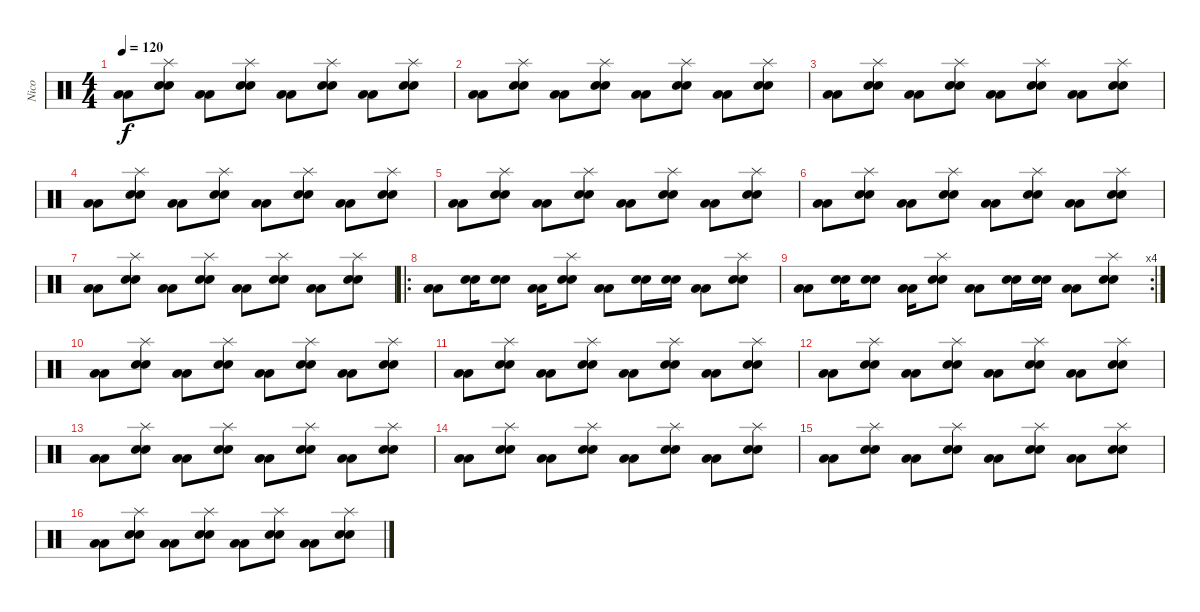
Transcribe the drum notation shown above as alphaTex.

\track ("Nico" "Nico") {instrument percussion}
\staff {score}
\articulation defaults
\ts (4 4)
\tempo 120
\clef neutral
\ks c
("Low Floor Tom (hit)" "Low Floor Tom (hit)").8{dy f} ("Splash (hit)" "Snare (hit) 2" "Snare (hit) 2").8 ("Low Floor Tom (hit)" "Low Floor Tom (hit)").8 ("Splash (hit)" "Snare (hit) 2" "Snare (hit) 2").8 ("Low Floor Tom (hit)" "Low Floor Tom (hit)").8 ("Splash (hit)" "Snare (hit) 2" "Snare (hit) 2").8 ("Low Floor Tom (hit)" "Low Floor Tom (hit)").8 ("Splash (hit)" "Snare (hit) 2" "Snare (hit) 2").8 |
("Low Floor Tom (hit)" "Low Floor Tom (hit)").8 ("Splash (hit)" "Snare (hit) 2" "Snare (hit) 2").8 ("Low Floor Tom (hit)" "Low Floor Tom (hit)").8 ("Splash (hit)" "Snare (hit) 2" "Snare (hit) 2").8 ("Low Floor Tom (hit)" "Low Floor Tom (hit)").8 ("Splash (hit)" "Snare (hit) 2" "Snare (hit) 2").8 ("Low Floor Tom (hit)" "Low Floor Tom (hit)").8 ("Splash (hit)" "Snare (hit) 2" "Snare (hit) 2").8 |
("Low Floor Tom (hit)" "Low Floor Tom (hit)").8 ("Splash (hit)" "Snare (hit) 2" "Snare (hit) 2").8 ("Low Floor Tom (hit)" "Low Floor Tom (hit)").8 ("Splash (hit)" "Snare (hit) 2" "Snare (hit) 2").8 ("Low Floor Tom (hit)" "Low Floor Tom (hit)").8 ("Splash (hit)" "Snare (hit) 2" "Snare (hit) 2").8 ("Low Floor Tom (hit)" "Low Floor Tom (hit)").8 ("Splash (hit)" "Snare (hit) 2" "Snare (hit) 2").8 |
("Low Floor Tom (hit)" "Low Floor Tom (hit)").8 ("Splash (hit)" "Snare (hit) 2" "Snare (hit) 2").8 ("Low Floor Tom (hit)" "Low Floor Tom (hit)").8 ("Splash (hit)" "Snare (hit) 2" "Snare (hit) 2").8 ("Low Floor Tom (hit)" "Low Floor Tom (hit)").8 ("Splash (hit)" "Snare (hit) 2" "Snare (hit) 2").8 ("Low Floor Tom (hit)" "Low Floor Tom (hit)").8 ("Splash (hit)" "Snare (hit) 2" "Snare (hit) 2").8 |
("Low Floor Tom (hit)" "Low Floor Tom (hit)").8 ("Splash (hit)" "Snare (hit) 2" "Snare (hit) 2").8 ("Low Floor Tom (hit)" "Low Floor Tom (hit)").8 ("Splash (hit)" "Snare (hit) 2" "Snare (hit) 2").8 ("Low Floor Tom (hit)" "Low Floor Tom (hit)").8 ("Splash (hit)" "Snare (hit) 2" "Snare (hit) 2").8 ("Low Floor Tom (hit)" "Low Floor Tom (hit)").8 ("Splash (hit)" "Snare (hit) 2" "Snare (hit) 2").8 |
("Low Floor Tom (hit)" "Low Floor Tom (hit)").8 ("Splash (hit)" "Snare (hit) 2" "Snare (hit) 2").8 ("Low Floor Tom (hit)" "Low Floor Tom (hit)").8 ("Splash (hit)" "Snare (hit) 2" "Snare (hit) 2").8 ("Low Floor Tom (hit)" "Low Floor Tom (hit)").8 ("Splash (hit)" "Snare (hit) 2" "Snare (hit) 2").8 ("Low Floor Tom (hit)" "Low Floor Tom (hit)").8 ("Splash (hit)" "Snare (hit) 2" "Snare (hit) 2").8 |
("Low Floor Tom (hit)" "Low Floor Tom (hit)").8 ("Splash (hit)" "Snare (hit) 2" "Snare (hit) 2").8 ("Low Floor Tom (hit)" "Low Floor Tom (hit)").8 ("Splash (hit)" "Snare (hit) 2" "Snare (hit) 2").8 ("Low Floor Tom (hit)" "Low Floor Tom (hit)").8 ("Splash (hit)" "Snare (hit) 2" "Snare (hit) 2").8 ("Low Floor Tom (hit)" "Low Floor Tom (hit)").8 ("Splash (hit)" "Snare (hit) 2" "Snare (hit) 2").8 |
\ro
("Low Floor Tom (hit)" "Low Floor Tom (hit)").8 ("Snare (hit) 2" "Snare (hit) 2").16 ("Snare (hit) 2" "Snare (hit) 2").8 ("Low Floor Tom (hit)" "Low Floor Tom (hit)").16 ("Splash (hit)" "Snare (hit) 2" "Snare (hit) 2").8 ("Low Floor Tom (hit)" "Low Floor Tom (hit)").8 ("Snare (hit) 2" "Snare (hit) 2").16 ("Snare (hit) 2" "Snare (hit) 2").16 ("Low Floor Tom (hit)" "Low Floor Tom (hit)").8 ("Splash (hit)" "Snare (hit) 2" "Snare (hit) 2").8 |
\rc 4
("Low Floor Tom (hit)" "Low Floor Tom (hit)").8 ("Snare (hit) 2" "Snare (hit) 2").16 ("Snare (hit) 2" "Snare (hit) 2").8 ("Low Floor Tom (hit)" "Low Floor Tom (hit)").16 ("Splash (hit)" "Snare (hit) 2" "Snare (hit) 2").8 ("Low Floor Tom (hit)" "Low Floor Tom (hit)").8 ("Snare (hit) 2" "Snare (hit) 2").16 ("Snare (hit) 2" "Snare (hit) 2").16 ("Low Floor Tom (hit)" "Low Floor Tom (hit)").8 ("Splash (hit)" "Snare (hit) 2" "Snare (hit) 2").8 |
("Low Floor Tom (hit)" "Low Floor Tom (hit)").8 ("Splash (hit)" "Snare (hit) 2" "Snare (hit) 2").8 ("Low Floor Tom (hit)" "Low Floor Tom (hit)").8 ("Splash (hit)" "Snare (hit) 2" "Snare (hit) 2").8 ("Low Floor Tom (hit)" "Low Floor Tom (hit)").8 ("Splash (hit)" "Snare (hit) 2" "Snare (hit) 2").8 ("Low Floor Tom (hit)" "Low Floor Tom (hit)").8 ("Splash (hit)" "Snare (hit) 2" "Snare (hit) 2").8 |
("Low Floor Tom (hit)" "Low Floor Tom (hit)").8 ("Splash (hit)" "Snare (hit) 2" "Snare (hit) 2").8 ("Low Floor Tom (hit)" "Low Floor Tom (hit)").8 ("Splash (hit)" "Snare (hit) 2" "Snare (hit) 2").8 ("Low Floor Tom (hit)" "Low Floor Tom (hit)").8 ("Splash (hit)" "Snare (hit) 2" "Snare (hit) 2").8 ("Low Floor Tom (hit)" "Low Floor Tom (hit)").8 ("Splash (hit)" "Snare (hit) 2" "Snare (hit) 2").8 |
("Low Floor Tom (hit)" "Low Floor Tom (hit)").8 ("Splash (hit)" "Snare (hit) 2" "Snare (hit) 2").8 ("Low Floor Tom (hit)" "Low Floor Tom (hit)").8 ("Splash (hit)" "Snare (hit) 2" "Snare (hit) 2").8 ("Low Floor Tom (hit)" "Low Floor Tom (hit)").8 ("Splash (hit)" "Snare (hit) 2" "Snare (hit) 2").8 ("Low Floor Tom (hit)" "Low Floor Tom (hit)").8 ("Splash (hit)" "Snare (hit) 2" "Snare (hit) 2").8 |
("Low Floor Tom (hit)" "Low Floor Tom (hit)").8 ("Splash (hit)" "Snare (hit) 2" "Snare (hit) 2").8 ("Low Floor Tom (hit)" "Low Floor Tom (hit)").8 ("Splash (hit)" "Snare (hit) 2" "Snare (hit) 2").8 ("Low Floor Tom (hit)" "Low Floor Tom (hit)").8 ("Splash (hit)" "Snare (hit) 2" "Snare (hit) 2").8 ("Low Floor Tom (hit)" "Low Floor Tom (hit)").8 ("Splash (hit)" "Snare (hit) 2" "Snare (hit) 2").8 |
("Low Floor Tom (hit)" "Low Floor Tom (hit)").8 ("Splash (hit)" "Snare (hit) 2" "Snare (hit) 2").8 ("Low Floor Tom (hit)" "Low Floor Tom (hit)").8 ("Splash (hit)" "Snare (hit) 2" "Snare (hit) 2").8 ("Low Floor Tom (hit)" "Low Floor Tom (hit)").8 ("Splash (hit)" "Snare (hit) 2" "Snare (hit) 2").8 ("Low Floor Tom (hit)" "Low Floor Tom (hit)").8 ("Splash (hit)" "Snare (hit) 2" "Snare (hit) 2").8 |
("Low Floor Tom (hit)" "Low Floor Tom (hit)").8 ("Splash (hit)" "Snare (hit) 2" "Snare (hit) 2").8 ("Low Floor Tom (hit)" "Low Floor Tom (hit)").8 ("Splash (hit)" "Snare (hit) 2" "Snare (hit) 2").8 ("Low Floor Tom (hit)" "Low Floor Tom (hit)").8 ("Splash (hit)" "Snare (hit) 2" "Snare (hit) 2").8 ("Low Floor Tom (hit)" "Low Floor Tom (hit)").8 ("Splash (hit)" "Snare (hit) 2" "Snare (hit) 2").8 |
("Low Floor Tom (hit)" "Low Floor Tom (hit)").8 ("Splash (hit)" "Snare (hit) 2" "Snare (hit) 2").8 ("Low Floor Tom (hit)" "Low Floor Tom (hit)").8 ("Splash (hit)" "Snare (hit) 2" "Snare (hit) 2").8 ("Low Floor Tom (hit)" "Low Floor Tom (hit)").8 ("Splash (hit)" "Snare (hit) 2" "Snare (hit) 2").8 ("Low Floor Tom (hit)" "Low Floor Tom (hit)").8 ("Splash (hit)" "Snare (hit) 2" "Snare (hit) 2").8
